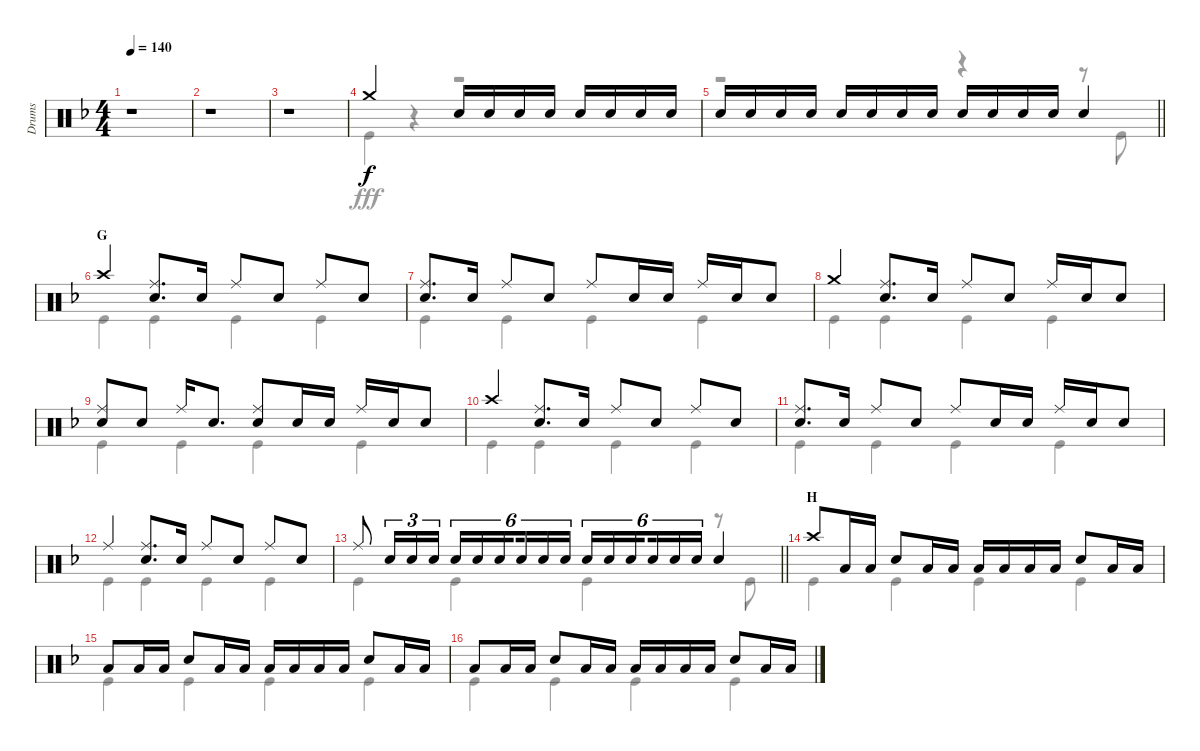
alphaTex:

\track ("Drums" "Drums") {instrument percussion}
\staff {score}
\articulation defaults
\voice
\ts (4 4)
\tempo 140
\clef neutral
\ks f
r.1{dy f} |
r.1 |
r.1 |
"Crash medium (hit)".2 "Snare (hit) 2".16 "Snare (hit) 2".16 "Snare (hit) 2".16 "Snare (hit) 2".16 "Snare (hit) 2".16 "Snare (hit) 2".16 "Snare (hit) 2".16 "Snare (hit) 2".16 |
\barLineRight lightlight "Snare (hit) 2".16 "Snare (hit) 2".16 "Snare (hit) 2".16 "Snare (hit) 2".16 "Snare (hit) 2".16 "Snare (hit) 2".16 "Snare (hit) 2".16 "Snare (hit) 2".16 "Snare (hit) 2".16 "Snare (hit) 2".16 "Snare (hit) 2".16 "Snare (hit) 2".16 "Snare (hit) 2".4
|
\section ("" "G")
"Crash high (hit)".4 ("Ride (middle)" "Snare (hit) 2").8{d} "Snare (hit) 2".16 "Ride (middle)".8 "Snare (hit) 2".8 "Ride (middle)".8 "Snare (hit) 2".8 |
("Ride (middle)" "Snare (hit) 2").8{d} "Snare (hit) 2".16 "Ride (middle)".8 "Snare (hit) 2".8 "Ride (middle)".8 "Snare (hit) 2".16 "Snare (hit) 2".16 "Ride (middle)".16 "Snare (hit) 2".16 "Snare (hit) 2".8 |
"Crash medium (hit)".4 ("Ride (middle)" "Snare (hit) 2").8{d} "Snare (hit) 2".16 "Ride (middle)".8 "Snare (hit) 2".8 "Ride (middle)".16 "Snare (hit) 2".16 "Snare (hit) 2".8 |
("Ride (middle)" "Snare (hit) 2").8 "Snare (hit) 2".8 "Ride (middle)".16 "Snare (hit) 2".8{d} ("Ride (middle)" "Snare (hit) 2").8 "Snare (hit) 2".16 "Snare (hit) 2".16 "Ride (middle)".16 "Snare (hit) 2".16 "Snare (hit) 2".8 |
"Crash high (hit)".4 ("Ride (middle)" "Snare (hit) 2").8{d} "Snare (hit) 2".16 "Ride (middle)".8 "Snare (hit) 2".8 "Ride (middle)".8 "Snare (hit) 2".8 |
("Ride (middle)" "Snare (hit) 2").8{d} "Snare (hit) 2".16 "Ride (middle)".8 "Snare (hit) 2".8 "Ride (middle)".8 "Snare (hit) 2".16 "Snare (hit) 2".16 "Ride (middle)".16 "Snare (hit) 2".16 "Snare (hit) 2".8 |
"Ride (middle)".4 ("Ride (middle)" "Snare (hit) 2").8{d} "Snare (hit) 2".16 "Ride (middle)".8 "Snare (hit) 2".8 "Ride (middle)".8 "Snare (hit) 2".8 |
\barLineRight lightlight "Ride (middle)".8 "Snare (hit) 2".16{tu (3 2)} "Snare (hit) 2".16{tu (3 2)} "Snare (hit) 2".16{tu (3 2)} "Snare (hit) 2".16{tu (6 4)} "Snare (hit) 2".16{tu (6 4)} "Snare (hit) 2".16{tu (6 4) beam splitsecondary} "Snare (hit) 2".16{tu (6 4)} "Snare (hit) 2".16{tu (6 4)} "Snare (hit) 2".16{tu (6 4)} "Snare (hit) 2".16{tu (6 4)} "Snare (hit) 2".16{tu (6 4)} "Snare (hit) 2".16{tu (6 4) beam splitsecondary} "Snare (hit) 2".16{tu (6 4)} "Snare (hit) 2".16{tu (6 4)} "Snare (hit) 2".16{tu (6 4)} "Snare (hit) 2".4
|
\section ("" "H")
"Crash high (hit)".8 "Low Tom (hit)".16 "Low Tom (hit)".16 "Snare (hit) 2".8 "Low Tom (hit)".16 "Low Tom (hit)".16 "Low Tom (hit)".16 "Low Tom (hit)".16 "Low Tom (hit)".16 "Low Tom (hit)".16 "Snare (hit) 2".8 "Low Tom (hit)".16 "Low Tom (hit)".16 |
"Low Tom (hit)".8 "Low Tom (hit)".16 "Low Tom (hit)".16 "Snare (hit) 2".8 "Low Tom (hit)".16 "Low Tom (hit)".16 "Low Tom (hit)".16 "Low Tom (hit)".16 "Low Tom (hit)".16 "Low Tom (hit)".16 "Snare (hit) 2".8 "Low Tom (hit)".16 "Low Tom (hit)".16 |
"Low Tom (hit)".8 "Low Tom (hit)".16 "Low Tom (hit)".16 "Snare (hit) 2".8 "Low Tom (hit)".16 "Low Tom (hit)".16 "Low Tom (hit)".16 "Low Tom (hit)".16 "Low Tom (hit)".16 "Low Tom (hit)".16 "Snare (hit) 2".8 "Low Tom (hit)".16 "Low Tom (hit)".16
\voice
\clef neutral
\ottava regular
\simile none
\ks f
r.1{dy fff} |
r.1 |
r.1 |
"Kick (hit)".4 r.4 r.2 |
\barLineRight lightlight
r.2 r.4 r.8 "Kick (hit)".8 |
"Kick (hit)".4 "Kick (hit)".4 "Kick (hit)".4 "Kick (hit)".4 |
"Kick (hit)".4 "Kick (hit)".4 "Kick (hit)".4 "Kick (hit)".4 |
"Kick (hit)".4 "Kick (hit)".4 "Kick (hit)".4 "Kick (hit)".4 |
"Kick (hit)".4 "Kick (hit)".4 "Kick (hit)".4 "Kick (hit)".4 |
"Kick (hit)".4 "Kick (hit)".4 "Kick (hit)".4 "Kick (hit)".4 |
"Kick (hit)".4 "Kick (hit)".4 "Kick (hit)".4 "Kick (hit)".4 |
"Kick (hit)".4 "Kick (hit)".4 "Kick (hit)".4 "Kick (hit)".4 |
\barLineRight lightlight "Kick (hit)".4 "Kick (hit)".4 "Kick (hit)".4
r.8 "Kick (hit)".8 |
"Kick (hit)".4 "Kick (hit)".4 "Kick (hit)".4 "Kick (hit)".4 |
"Kick (hit)".4 "Kick (hit)".4 "Kick (hit)".4 "Kick (hit)".4 |
"Kick (hit)".4 "Kick (hit)".4 "Kick (hit)".4 "Kick (hit)".4
